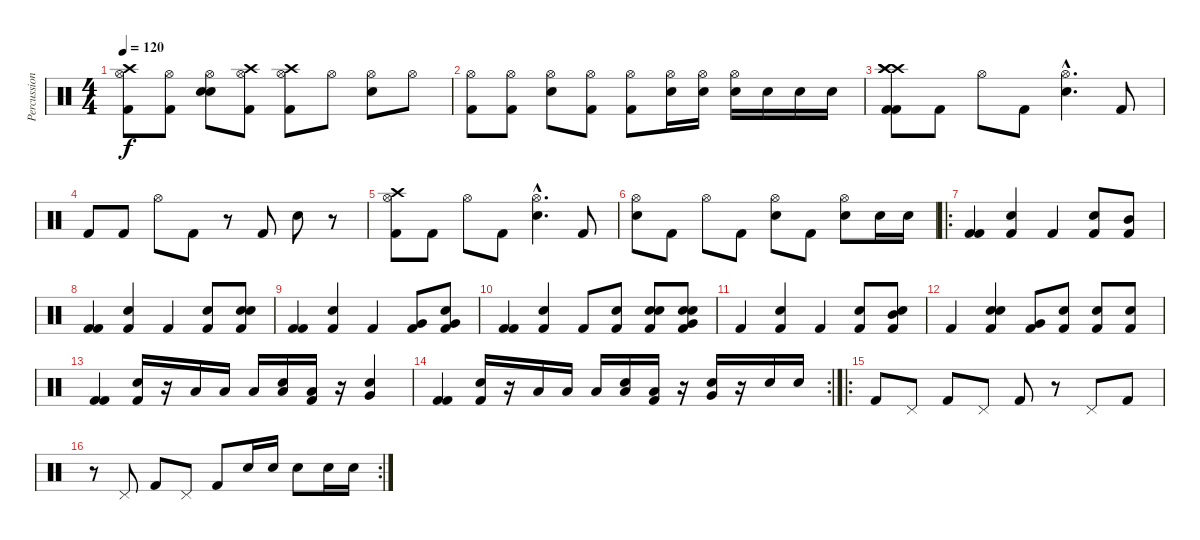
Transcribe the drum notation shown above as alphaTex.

\track ("Percussion" "Percussion") {instrument percussion}
\staff {score}
\articulation defaults
\ts (4 4)
\tempo 120
\clef neutral
\ks c
("Hi-Hat (open)" "Kick (hit) 2" "Crash high (hit)").8{dy f} ("Hi-Hat (open)" "Kick (hit) 2").8 ("Hi-Hat (open)" "Electric Snare (hit)" "Electric Snare (hit)").8 ("Hi-Hat (open)" "Kick (hit) 2" "Crash high (hit)").8 ("Hi-Hat (open)" "Kick (hit) 2" "Crash high (hit)").8 "Hi-Hat (open)".8 ("Hi-Hat (open)" "Electric Snare (hit)").8 "Hi-Hat (open)".8 |
("Hi-Hat (open)" "Kick (hit) 2").8 ("Hi-Hat (open)" "Kick (hit) 2").8 ("Hi-Hat (open)" "Electric Snare (hit)").8 ("Hi-Hat (open)" "Kick (hit) 2").8 ("Hi-Hat (open)" "Kick (hit) 2").8 ("Hi-Hat (open)" "Electric Snare (hit)").16 ("Hi-Hat (open)" "Electric Snare (hit)").16 ("Hi-Hat (open)" "Electric Snare (hit)").16 "Electric Snare (hit)".16 "Electric Snare (hit)".16 "Electric Snare (hit)".16 |
("Kick (hit) 2" "Kick (hit) 2" "Crash high (hit)" "Crash high (hit)" "Crash high (hit)").8 "Kick (hit) 2".8 "Hi-Hat (open)".8 "Kick (hit) 2".8 ("Hi-Hat (open)"{hac} "Electric Snare (hit)"{hac}).4{d} "Kick (hit) 2".8 |
"Kick (hit) 2".8 "Kick (hit) 2".8 "Hi-Hat (open)".8 "Kick (hit) 2".8 r.8 "Kick (hit) 2".8 "Electric Snare (hit)".8 r.8 |
("Kick (hit) 2" "Hi-Hat (open)" "Crash high (hit)").8 "Kick (hit) 2".8 "Hi-Hat (open)".8 "Kick (hit) 2".8 ("Hi-Hat (open)"{hac} "Electric Snare (hit)"{hac}).4{d} "Kick (hit) 2".8 |
("Hi-Hat (open)" "Electric Snare (hit)").8 "Kick (hit) 2".8 "Hi-Hat (open)".8 "Kick (hit) 2".8 ("Hi-Hat (open)" "Electric Snare (hit)").8 "Kick (hit) 2".8 ("Hi-Hat (open)" "Electric Snare (hit)").8 "Electric Snare (hit)".16 "Electric Snare (hit)".16 |
\ro
("Kick (hit) 2" "Kick (hit) 2").4 ("Kick (hit) 2" "Electric Snare (hit)").4 "Kick (hit) 2".4 ("Kick (hit) 2" "Electric Snare (hit)").8 ("Kick (hit) 2" "Mid Tom (hit)").8 |
("Kick (hit) 2" "Kick (hit) 2").4 ("Kick (hit) 2" "Electric Snare (hit)").4 "Kick (hit) 2".4 ("Kick (hit) 2" "Electric Snare (hit)").8 ("Kick (hit) 2" "Electric Snare (hit)" "Electric Snare (hit)").8 |
("Kick (hit) 2" "Kick (hit) 2").4 ("Kick (hit) 2" "Electric Snare (hit)").4 "Kick (hit) 2".4 ("Kick (hit) 2" "Very Low Tom (hit)").8 ("Kick (hit) 2" "Very Low Tom (hit)" "Electric Snare (hit)").8 |
("Kick (hit) 2" "Kick (hit) 2").4 ("Kick (hit) 2" "Electric Snare (hit)").4 "Kick (hit) 2".8 ("Kick (hit) 2" "Electric Snare (hit)").8 ("Kick (hit) 2" "Electric Snare (hit)" "Electric Snare (hit)").8 ("Kick (hit) 2" "Electric Snare (hit)" "Electric Snare (hit)" "Very Low Tom (hit)").8 |
"Kick (hit) 2".4 ("Kick (hit) 2" "Electric Snare (hit)").4 "Kick (hit) 2".4 ("Kick (hit) 2" "Electric Snare (hit)").8 ("Kick (hit) 2" "Electric Snare (hit)" "Mid Tom (hit)").8 |
"Kick (hit) 2".4 ("Kick (hit) 2" "Electric Snare (hit)" "Electric Snare (hit)").4 ("Kick (hit) 2" "Very Low Tom (hit)").8 ("Kick (hit) 2" "Electric Snare (hit)").8 ("Kick (hit) 2" "Electric Snare (hit)").8 ("Kick (hit) 2" "Electric Snare (hit)").8 |
("Kick (hit) 2" "Kick (hit) 2").4 ("Kick (hit) 2" "Electric Snare (hit)").16 r.16 "Low Tom (hit)".16 "Low Tom (hit)".16 "Low Tom (hit)".16 ("Low Tom (hit)" "Electric Snare (hit)").16 ("Low Tom (hit)" "Kick (hit) 2").16 r.16 ("Electric Snare (hit)" "Very Low Tom (hit)").4 |
\rc 2
("Kick (hit) 2" "Kick (hit) 2").4 ("Kick (hit) 2" "Electric Snare (hit)").16 r.16 "Low Tom (hit)".16 "Low Tom (hit)".16 "Low Tom (hit)".16 ("Low Tom (hit)" "Electric Snare (hit)").16 ("Low Tom (hit)" "Kick (hit) 2").16 r.16 ("Electric Snare (hit)" "Very Low Tom (hit)").16 r.16 "Electric Snare (hit)".16 "Electric Snare (hit)".16 |
\ro "Kick (hit) 2".8 "Pedal Hi-Hat (hit)".8 "Kick (hit) 2".8 "Pedal Hi-Hat (hit)".8 "Kick (hit) 2".8
r.8 "Pedal Hi-Hat (hit)".8 "Kick (hit) 2".8 |
\rc 2
r.8 "Pedal Hi-Hat (hit)".8 "Kick (hit) 2".8 "Pedal Hi-Hat (hit)".8 "Kick (hit) 2".8 "Electric Snare (hit)".16 "Electric Snare (hit)".16 "Electric Snare (hit)".8 "Electric Snare (hit)".16 "Electric Snare (hit)".16
